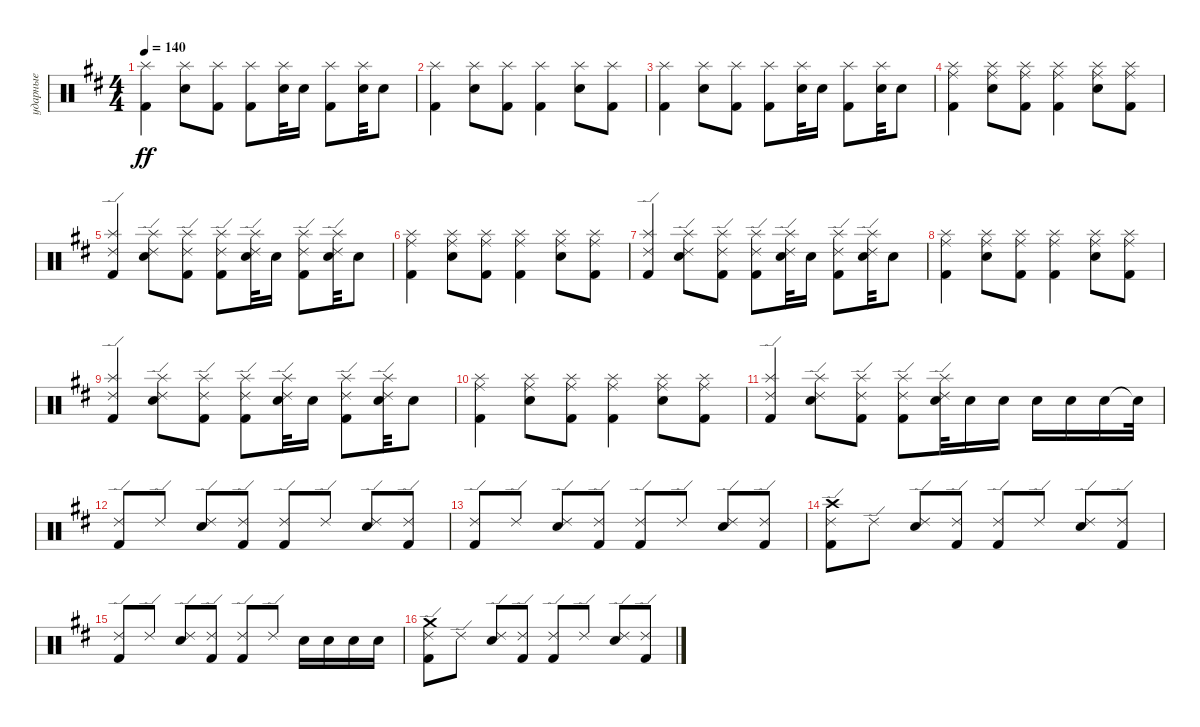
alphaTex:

\track ("ударные" "ударные") {instrument percussion}
\staff {score}
\articulation defaults
\ts (4 4)
\tempo 140
\clef neutral
\ks bminor
("Kick (hit) 2" "Splash (hit)").4{dy ff} ("Snare (hit) 2" "Splash (hit)").8 ("Kick (hit) 2" "Splash (hit)").8 ("Kick (hit) 2" "Splash (hit)").8 ("Snare (hit) 2" "Splash (hit)").32 "Snare (hit) 2".16{beam split} ("Kick (hit) 2" "Splash (hit)").8{beam merge} ("Snare (hit) 2" "Splash (hit)").32 "Snare (hit) 2".8 |
("Kick (hit) 2" "Splash (hit)").4 ("Snare (hit) 2" "Splash (hit)").8 ("Kick (hit) 2" "Splash (hit)").8 ("Kick (hit) 2" "Splash (hit)").4 ("Snare (hit) 2" "Splash (hit)").8 ("Kick (hit) 2" "Splash (hit)").8 |
("Kick (hit) 2" "Splash (hit)").4 ("Snare (hit) 2" "Splash (hit)").8 ("Kick (hit) 2" "Splash (hit)").8 ("Kick (hit) 2" "Splash (hit)").8 ("Snare (hit) 2" "Splash (hit)").32 "Snare (hit) 2".16{beam split} ("Kick (hit) 2" "Splash (hit)").8{beam merge} ("Snare (hit) 2" "Splash (hit)").32 "Snare (hit) 2".8 |
("Kick (hit) 2" "Splash (hit)" "Ride (middle)").4 ("Snare (hit) 2" "Splash (hit)" "Ride (middle)").8 ("Kick (hit) 2" "Splash (hit)" "Ride (middle)").8 ("Kick (hit) 2" "Splash (hit)" "Ride (middle)").4 ("Snare (hit) 2" "Splash (hit)" "Ride (middle)").8 ("Kick (hit) 2" "Splash (hit)" "Ride (middle)").8 |
("Kick (hit) 2" "Splash (hit)" "Ride (edge) 2").4 ("Snare (hit) 2" "Splash (hit)" "Ride (edge) 2").8 ("Kick (hit) 2" "Splash (hit)" "Ride (edge) 2").8 ("Kick (hit) 2" "Splash (hit)" "Ride (edge) 2").8 ("Snare (hit) 2" "Splash (hit)" "Ride (edge) 2").32 "Snare (hit) 2".16{beam split} ("Kick (hit) 2" "Splash (hit)" "Ride (edge) 2").8{beam merge} ("Snare (hit) 2" "Splash (hit)" "Ride (edge) 2").32 "Snare (hit) 2".8 |
("Kick (hit) 2" "Splash (hit)" "Ride (middle)").4 ("Snare (hit) 2" "Splash (hit)" "Ride (middle)").8 ("Kick (hit) 2" "Splash (hit)" "Ride (middle)").8 ("Kick (hit) 2" "Splash (hit)" "Ride (middle)").4 ("Snare (hit) 2" "Splash (hit)" "Ride (middle)").8 ("Kick (hit) 2" "Splash (hit)" "Ride (middle)").8 |
("Kick (hit) 2" "Splash (hit)" "Ride (edge) 2").4 ("Snare (hit) 2" "Splash (hit)" "Ride (edge) 2").8 ("Kick (hit) 2" "Splash (hit)" "Ride (edge) 2").8 ("Kick (hit) 2" "Splash (hit)" "Ride (edge) 2").8 ("Snare (hit) 2" "Splash (hit)" "Ride (edge) 2").32 "Snare (hit) 2".16{beam split} ("Kick (hit) 2" "Splash (hit)" "Ride (edge) 2").8{beam merge} ("Snare (hit) 2" "Splash (hit)" "Ride (edge) 2").32 "Snare (hit) 2".8 |
("Kick (hit) 2" "Splash (hit)" "Ride (middle)").4 ("Snare (hit) 2" "Splash (hit)" "Ride (middle)").8 ("Kick (hit) 2" "Splash (hit)" "Ride (middle)").8 ("Kick (hit) 2" "Splash (hit)" "Ride (middle)").4 ("Snare (hit) 2" "Splash (hit)" "Ride (middle)").8 ("Kick (hit) 2" "Splash (hit)" "Ride (middle)").8 |
("Kick (hit) 2" "Splash (hit)" "Ride (edge) 2").4 ("Snare (hit) 2" "Splash (hit)" "Ride (edge) 2").8 ("Kick (hit) 2" "Splash (hit)" "Ride (edge) 2").8 ("Kick (hit) 2" "Splash (hit)" "Ride (edge) 2").8 ("Snare (hit) 2" "Splash (hit)" "Ride (edge) 2").32 "Snare (hit) 2".16{beam split} ("Kick (hit) 2" "Splash (hit)" "Ride (edge) 2").8{beam merge} ("Snare (hit) 2" "Splash (hit)" "Ride (edge) 2").32 "Snare (hit) 2".8 |
("Kick (hit) 2" "Splash (hit)" "Ride (middle)").4 ("Snare (hit) 2" "Splash (hit)" "Ride (middle)").8 ("Kick (hit) 2" "Splash (hit)" "Ride (middle)").8 ("Kick (hit) 2" "Splash (hit)" "Ride (middle)").4 ("Snare (hit) 2" "Splash (hit)" "Ride (middle)").8 ("Kick (hit) 2" "Splash (hit)" "Ride (middle)").8 |
("Kick (hit) 2" "Splash (hit)" "Ride (edge) 2").4 ("Snare (hit) 2" "Splash (hit)" "Ride (edge) 2").8 ("Kick (hit) 2" "Splash (hit)" "Ride (edge) 2").8 ("Kick (hit) 2" "Splash (hit)" "Ride (edge) 2").8 ("Snare (hit) 2" "Splash (hit)" "Ride (edge) 2").32 "Snare (hit) 2".16 "Snare (hit) 2".16 "Snare (hit) 2".16 "Snare (hit) 2".16 "Snare (hit) 2".16 "Snare (hit) 2"{t}.32 |
("Kick (hit) 2" "Ride (edge) 2").8 "Ride (edge) 2".8 ("Snare (hit) 2" "Ride (edge) 2").8 ("Kick (hit) 2" "Ride (edge) 2").8 ("Kick (hit) 2" "Ride (edge) 2").8 "Ride (edge) 2".8 ("Snare (hit) 2" "Ride (edge) 2").8 ("Kick (hit) 2" "Ride (edge) 2").8 |
("Kick (hit) 2" "Ride (edge) 2").8 "Ride (edge) 2".8 ("Snare (hit) 2" "Ride (edge) 2").8 ("Kick (hit) 2" "Ride (edge) 2").8 ("Kick (hit) 2" "Ride (edge) 2").8 "Ride (edge) 2".8 ("Snare (hit) 2" "Ride (edge) 2").8 ("Kick (hit) 2" "Ride (edge) 2").8 |
("Kick (hit) 2" "Ride (edge) 2" "Crash high (hit)").8 "Ride (edge) 2".8 ("Snare (hit) 2" "Ride (edge) 2").8 ("Kick (hit) 2" "Ride (edge) 2").8 ("Kick (hit) 2" "Ride (edge) 2").8 "Ride (edge) 2".8 ("Snare (hit) 2" "Ride (edge) 2").8 ("Kick (hit) 2" "Ride (edge) 2").8 |
("Kick (hit) 2" "Ride (edge) 2").8 "Ride (edge) 2".8 ("Snare (hit) 2" "Ride (edge) 2").8 ("Kick (hit) 2" "Ride (edge) 2").8 ("Kick (hit) 2" "Ride (edge) 2").8 "Ride (edge) 2".8 "Snare (hit) 2".16 "Snare (hit) 2".16 "Snare (hit) 2".16 "Snare (hit) 2".16 |
("Kick (hit) 2" "Ride (edge) 2" "Crash medium (hit)").8 "Ride (edge) 2".8 ("Snare (hit) 2" "Ride (edge) 2").8 ("Kick (hit) 2" "Ride (edge) 2").8 ("Kick (hit) 2" "Ride (edge) 2").8 "Ride (edge) 2".8 ("Snare (hit) 2" "Ride (edge) 2").8 ("Kick (hit) 2" "Ride (edge) 2").8
